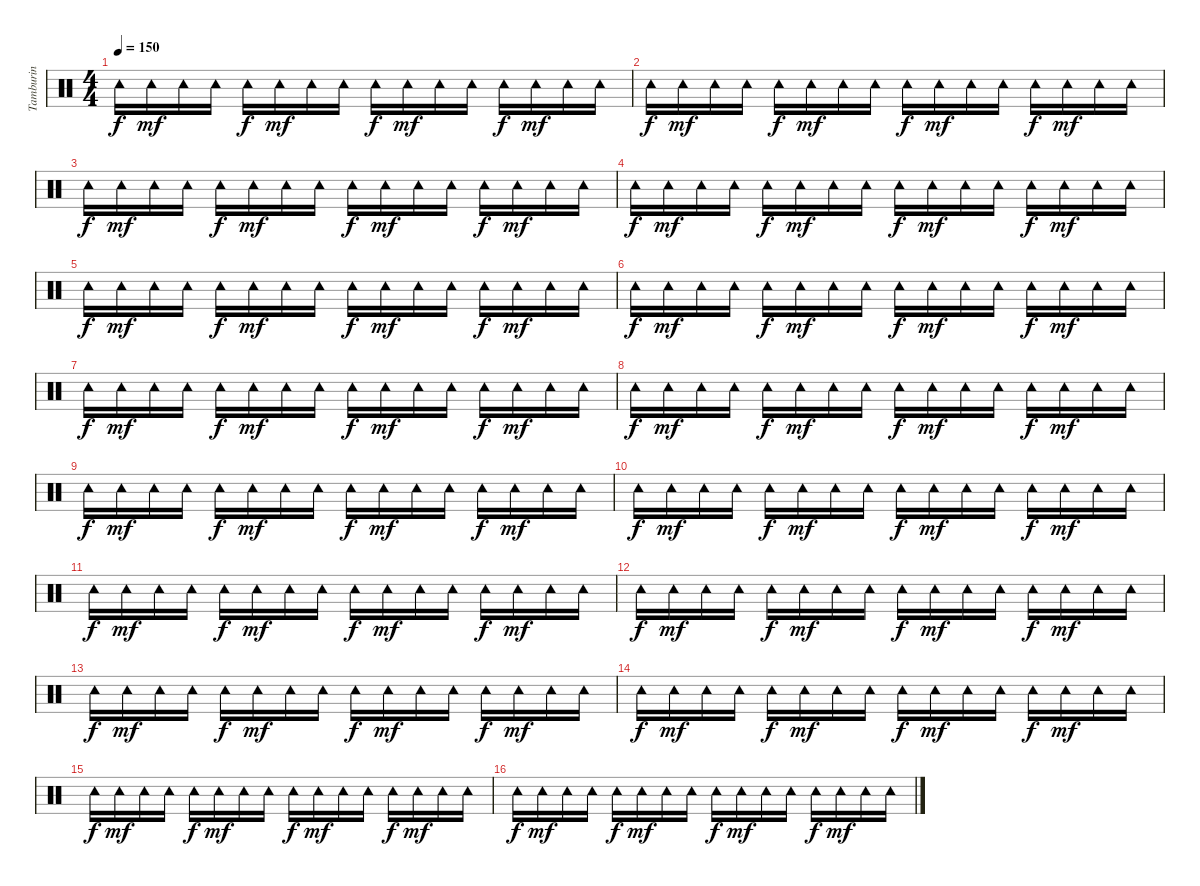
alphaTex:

\track ("Tamburin" "Tamburin") {instrument percussion}
\staff {score}
\articulation defaults
\ts (4 4)
\tempo 150
\clef neutral
\ks c "Tambourine (hit)".16{dy f} "Tambourine (hit)".16{dy mf} "Tambourine (hit)".16 "Tambourine (hit)".16 "Tambourine (hit)".16{dy f} "Tambourine (hit)".16{dy mf} "Tambourine (hit)".16 "Tambourine (hit)".16 "Tambourine (hit)".16{dy f} "Tambourine (hit)".16{dy mf} "Tambourine (hit)".16 "Tambourine (hit)".16 "Tambourine (hit)".16{dy f} "Tambourine (hit)".16{dy mf} "Tambourine (hit)".16 "Tambourine (hit)".16
|
"Tambourine (hit)".16{dy f} "Tambourine (hit)".16{dy mf} "Tambourine (hit)".16 "Tambourine (hit)".16 "Tambourine (hit)".16{dy f} "Tambourine (hit)".16{dy mf} "Tambourine (hit)".16 "Tambourine (hit)".16 "Tambourine (hit)".16{dy f} "Tambourine (hit)".16{dy mf} "Tambourine (hit)".16 "Tambourine (hit)".16 "Tambourine (hit)".16{dy f} "Tambourine (hit)".16{dy mf} "Tambourine (hit)".16 "Tambourine (hit)".16 |
"Tambourine (hit)".16{dy f} "Tambourine (hit)".16{dy mf} "Tambourine (hit)".16 "Tambourine (hit)".16 "Tambourine (hit)".16{dy f} "Tambourine (hit)".16{dy mf} "Tambourine (hit)".16 "Tambourine (hit)".16 "Tambourine (hit)".16{dy f} "Tambourine (hit)".16{dy mf} "Tambourine (hit)".16 "Tambourine (hit)".16 "Tambourine (hit)".16{dy f} "Tambourine (hit)".16{dy mf} "Tambourine (hit)".16 "Tambourine (hit)".16 |
"Tambourine (hit)".16{dy f} "Tambourine (hit)".16{dy mf} "Tambourine (hit)".16 "Tambourine (hit)".16 "Tambourine (hit)".16{dy f} "Tambourine (hit)".16{dy mf} "Tambourine (hit)".16 "Tambourine (hit)".16 "Tambourine (hit)".16{dy f} "Tambourine (hit)".16{dy mf} "Tambourine (hit)".16 "Tambourine (hit)".16 "Tambourine (hit)".16{dy f} "Tambourine (hit)".16{dy mf} "Tambourine (hit)".16 "Tambourine (hit)".16 |
"Tambourine (hit)".16{dy f} "Tambourine (hit)".16{dy mf} "Tambourine (hit)".16 "Tambourine (hit)".16 "Tambourine (hit)".16{dy f} "Tambourine (hit)".16{dy mf} "Tambourine (hit)".16 "Tambourine (hit)".16 "Tambourine (hit)".16{dy f} "Tambourine (hit)".16{dy mf} "Tambourine (hit)".16 "Tambourine (hit)".16 "Tambourine (hit)".16{dy f} "Tambourine (hit)".16{dy mf} "Tambourine (hit)".16 "Tambourine (hit)".16 |
"Tambourine (hit)".16{dy f} "Tambourine (hit)".16{dy mf} "Tambourine (hit)".16 "Tambourine (hit)".16 "Tambourine (hit)".16{dy f} "Tambourine (hit)".16{dy mf} "Tambourine (hit)".16 "Tambourine (hit)".16 "Tambourine (hit)".16{dy f} "Tambourine (hit)".16{dy mf} "Tambourine (hit)".16 "Tambourine (hit)".16 "Tambourine (hit)".16{dy f} "Tambourine (hit)".16{dy mf} "Tambourine (hit)".16 "Tambourine (hit)".16 |
"Tambourine (hit)".16{dy f} "Tambourine (hit)".16{dy mf} "Tambourine (hit)".16 "Tambourine (hit)".16 "Tambourine (hit)".16{dy f} "Tambourine (hit)".16{dy mf} "Tambourine (hit)".16 "Tambourine (hit)".16 "Tambourine (hit)".16{dy f} "Tambourine (hit)".16{dy mf} "Tambourine (hit)".16 "Tambourine (hit)".16 "Tambourine (hit)".16{dy f} "Tambourine (hit)".16{dy mf} "Tambourine (hit)".16 "Tambourine (hit)".16 |
"Tambourine (hit)".16{dy f} "Tambourine (hit)".16{dy mf} "Tambourine (hit)".16 "Tambourine (hit)".16 "Tambourine (hit)".16{dy f} "Tambourine (hit)".16{dy mf} "Tambourine (hit)".16 "Tambourine (hit)".16 "Tambourine (hit)".16{dy f} "Tambourine (hit)".16{dy mf} "Tambourine (hit)".16 "Tambourine (hit)".16 "Tambourine (hit)".16{dy f} "Tambourine (hit)".16{dy mf} "Tambourine (hit)".16 "Tambourine (hit)".16 |
"Tambourine (hit)".16{dy f} "Tambourine (hit)".16{dy mf} "Tambourine (hit)".16 "Tambourine (hit)".16 "Tambourine (hit)".16{dy f} "Tambourine (hit)".16{dy mf} "Tambourine (hit)".16 "Tambourine (hit)".16 "Tambourine (hit)".16{dy f} "Tambourine (hit)".16{dy mf} "Tambourine (hit)".16 "Tambourine (hit)".16 "Tambourine (hit)".16{dy f} "Tambourine (hit)".16{dy mf} "Tambourine (hit)".16 "Tambourine (hit)".16 |
"Tambourine (hit)".16{dy f} "Tambourine (hit)".16{dy mf} "Tambourine (hit)".16 "Tambourine (hit)".16 "Tambourine (hit)".16{dy f} "Tambourine (hit)".16{dy mf} "Tambourine (hit)".16 "Tambourine (hit)".16 "Tambourine (hit)".16{dy f} "Tambourine (hit)".16{dy mf} "Tambourine (hit)".16 "Tambourine (hit)".16 "Tambourine (hit)".16{dy f} "Tambourine (hit)".16{dy mf} "Tambourine (hit)".16 "Tambourine (hit)".16 |
"Tambourine (hit)".16{dy f} "Tambourine (hit)".16{dy mf} "Tambourine (hit)".16 "Tambourine (hit)".16 "Tambourine (hit)".16{dy f} "Tambourine (hit)".16{dy mf} "Tambourine (hit)".16 "Tambourine (hit)".16 "Tambourine (hit)".16{dy f} "Tambourine (hit)".16{dy mf} "Tambourine (hit)".16 "Tambourine (hit)".16 "Tambourine (hit)".16{dy f} "Tambourine (hit)".16{dy mf} "Tambourine (hit)".16 "Tambourine (hit)".16 |
"Tambourine (hit)".16{dy f} "Tambourine (hit)".16{dy mf} "Tambourine (hit)".16 "Tambourine (hit)".16 "Tambourine (hit)".16{dy f} "Tambourine (hit)".16{dy mf} "Tambourine (hit)".16 "Tambourine (hit)".16 "Tambourine (hit)".16{dy f} "Tambourine (hit)".16{dy mf} "Tambourine (hit)".16 "Tambourine (hit)".16 "Tambourine (hit)".16{dy f} "Tambourine (hit)".16{dy mf} "Tambourine (hit)".16 "Tambourine (hit)".16 |
"Tambourine (hit)".16{dy f} "Tambourine (hit)".16{dy mf} "Tambourine (hit)".16 "Tambourine (hit)".16 "Tambourine (hit)".16{dy f} "Tambourine (hit)".16{dy mf} "Tambourine (hit)".16 "Tambourine (hit)".16 "Tambourine (hit)".16{dy f} "Tambourine (hit)".16{dy mf} "Tambourine (hit)".16 "Tambourine (hit)".16 "Tambourine (hit)".16{dy f} "Tambourine (hit)".16{dy mf} "Tambourine (hit)".16 "Tambourine (hit)".16 |
"Tambourine (hit)".16{dy f} "Tambourine (hit)".16{dy mf} "Tambourine (hit)".16 "Tambourine (hit)".16 "Tambourine (hit)".16{dy f} "Tambourine (hit)".16{dy mf} "Tambourine (hit)".16 "Tambourine (hit)".16 "Tambourine (hit)".16{dy f} "Tambourine (hit)".16{dy mf} "Tambourine (hit)".16 "Tambourine (hit)".16 "Tambourine (hit)".16{dy f} "Tambourine (hit)".16{dy mf} "Tambourine (hit)".16 "Tambourine (hit)".16 |
"Tambourine (hit)".16{dy f} "Tambourine (hit)".16{dy mf} "Tambourine (hit)".16 "Tambourine (hit)".16 "Tambourine (hit)".16{dy f} "Tambourine (hit)".16{dy mf} "Tambourine (hit)".16 "Tambourine (hit)".16 "Tambourine (hit)".16{dy f} "Tambourine (hit)".16{dy mf} "Tambourine (hit)".16 "Tambourine (hit)".16 "Tambourine (hit)".16{dy f} "Tambourine (hit)".16{dy mf} "Tambourine (hit)".16 "Tambourine (hit)".16 |
"Tambourine (hit)".16{dy f} "Tambourine (hit)".16{dy mf} "Tambourine (hit)".16 "Tambourine (hit)".16 "Tambourine (hit)".16{dy f} "Tambourine (hit)".16{dy mf} "Tambourine (hit)".16 "Tambourine (hit)".16 "Tambourine (hit)".16{dy f} "Tambourine (hit)".16{dy mf} "Tambourine (hit)".16 "Tambourine (hit)".16 "Tambourine (hit)".16{dy f} "Tambourine (hit)".16{dy mf} "Tambourine (hit)".16 "Tambourine (hit)".16
